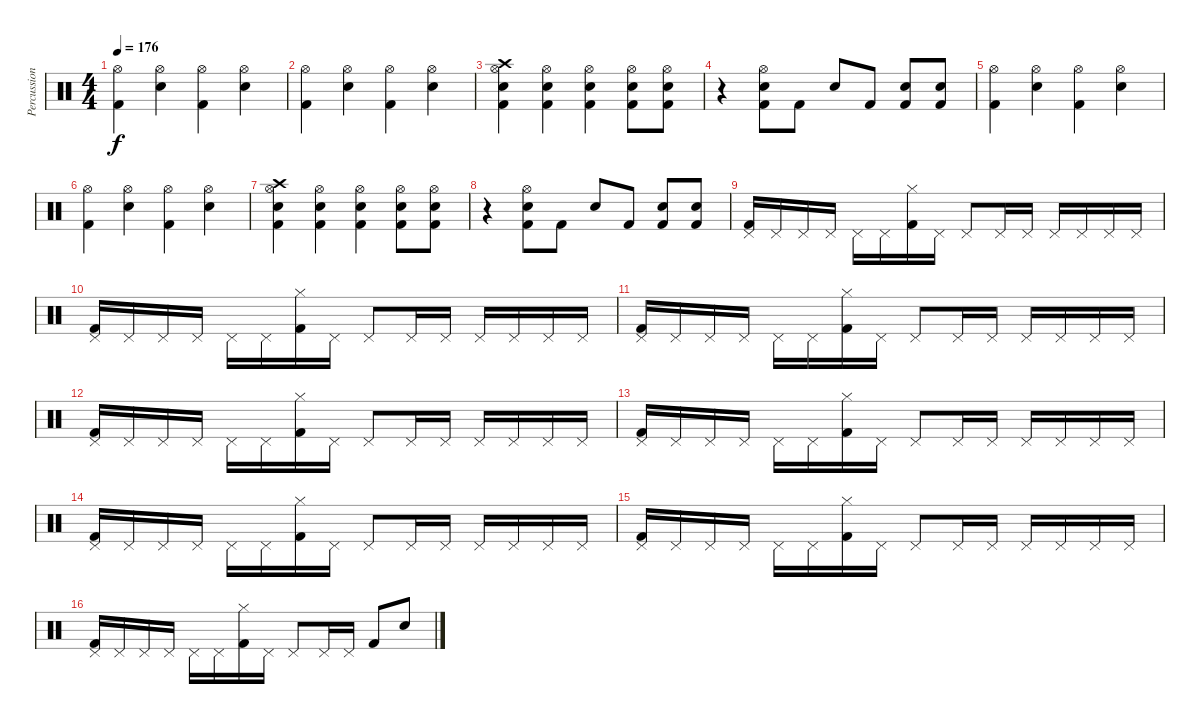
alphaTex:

\track ("Percussion" "Percussion") {instrument percussion}
\staff {score}
\articulation defaults
\ts (4 4)
\tempo 176
\clef neutral
\ks c
("Hi-Hat (open)" "Kick (hit) 2").4{dy f} ("Hi-Hat (open)" "Snare (hit) 2").4 ("Hi-Hat (open)" "Kick (hit) 2").4 ("Hi-Hat (open)" "Snare (hit) 2").4 |
("Hi-Hat (open)" "Kick (hit) 2").4 ("Hi-Hat (open)" "Snare (hit) 2").4 ("Hi-Hat (open)" "Kick (hit) 2").4 ("Hi-Hat (open)" "Snare (hit) 2").4 |
("Crash high (hit)" "Snare (hit) 2" "Hi-Hat (open)" "Kick (hit) 2").4 ("Snare (hit) 2" "Hi-Hat (open)" "Kick (hit) 2").4 ("Snare (hit) 2" "Hi-Hat (open)" "Kick (hit) 2").4 ("Snare (hit) 2" "Hi-Hat (open)" "Kick (hit) 2").8 ("Snare (hit) 2" "Hi-Hat (open)" "Kick (hit) 2").8 |
r.4 ("Snare (hit) 2" "Hi-Hat (open)" "Kick (hit) 2").8 "Kick (hit) 2".8 "Snare (hit) 2".8 "Kick (hit) 2".8 ("Snare (hit) 2" "Kick (hit) 2").8 ("Snare (hit) 2" "Kick (hit) 2").8 |
("Hi-Hat (open)" "Kick (hit) 2").4 ("Hi-Hat (open)" "Snare (hit) 2").4 ("Hi-Hat (open)" "Kick (hit) 2").4 ("Hi-Hat (open)" "Snare (hit) 2").4 |
("Hi-Hat (open)" "Kick (hit) 2").4 ("Hi-Hat (open)" "Snare (hit) 2").4 ("Hi-Hat (open)" "Kick (hit) 2").4 ("Hi-Hat (open)" "Snare (hit) 2").4 |
("Crash high (hit)" "Snare (hit) 2" "Hi-Hat (open)" "Kick (hit) 2").4 ("Snare (hit) 2" "Hi-Hat (open)" "Kick (hit) 2").4 ("Snare (hit) 2" "Hi-Hat (open)" "Kick (hit) 2").4 ("Snare (hit) 2" "Hi-Hat (open)" "Kick (hit) 2").8 ("Snare (hit) 2" "Hi-Hat (open)" "Kick (hit) 2").8 |
r.4 ("Snare (hit) 2" "Hi-Hat (open)" "Kick (hit) 2").8 "Kick (hit) 2".8 "Snare (hit) 2".8 "Kick (hit) 2".8 ("Snare (hit) 2" "Kick (hit) 2").8 ("Snare (hit) 2" "Kick (hit) 2").8 |
("Pedal Hi-Hat (hit)" "Kick (hit) 2").16 "Pedal Hi-Hat (hit)".16 "Pedal Hi-Hat (hit)".16 "Pedal Hi-Hat (hit)".16 "Pedal Hi-Hat (hit)".16 "Pedal Hi-Hat (hit)".16 ("Hi-Hat (closed)" "Kick (hit) 2").16 "Pedal Hi-Hat (hit)".16 "Pedal Hi-Hat (hit)".8 "Pedal Hi-Hat (hit)".16 "Pedal Hi-Hat (hit)".16 "Pedal Hi-Hat (hit)".16 "Pedal Hi-Hat (hit)".16 "Pedal Hi-Hat (hit)".16 "Pedal Hi-Hat (hit)".16 |
("Pedal Hi-Hat (hit)" "Kick (hit) 2").16 "Pedal Hi-Hat (hit)".16 "Pedal Hi-Hat (hit)".16 "Pedal Hi-Hat (hit)".16 "Pedal Hi-Hat (hit)".16 "Pedal Hi-Hat (hit)".16 ("Hi-Hat (closed)" "Kick (hit) 2").16 "Pedal Hi-Hat (hit)".16 "Pedal Hi-Hat (hit)".8 "Pedal Hi-Hat (hit)".16 "Pedal Hi-Hat (hit)".16 "Pedal Hi-Hat (hit)".16 "Pedal Hi-Hat (hit)".16 "Pedal Hi-Hat (hit)".16 "Pedal Hi-Hat (hit)".16 |
("Pedal Hi-Hat (hit)" "Kick (hit) 2").16 "Pedal Hi-Hat (hit)".16 "Pedal Hi-Hat (hit)".16 "Pedal Hi-Hat (hit)".16 "Pedal Hi-Hat (hit)".16 "Pedal Hi-Hat (hit)".16 ("Hi-Hat (closed)" "Kick (hit) 2").16 "Pedal Hi-Hat (hit)".16 "Pedal Hi-Hat (hit)".8 "Pedal Hi-Hat (hit)".16 "Pedal Hi-Hat (hit)".16 "Pedal Hi-Hat (hit)".16 "Pedal Hi-Hat (hit)".16 "Pedal Hi-Hat (hit)".16 "Pedal Hi-Hat (hit)".16 |
("Pedal Hi-Hat (hit)" "Kick (hit) 2").16 "Pedal Hi-Hat (hit)".16 "Pedal Hi-Hat (hit)".16 "Pedal Hi-Hat (hit)".16 "Pedal Hi-Hat (hit)".16 "Pedal Hi-Hat (hit)".16 ("Hi-Hat (closed)" "Kick (hit) 2").16 "Pedal Hi-Hat (hit)".16 "Pedal Hi-Hat (hit)".8 "Pedal Hi-Hat (hit)".16 "Pedal Hi-Hat (hit)".16 "Pedal Hi-Hat (hit)".16 "Pedal Hi-Hat (hit)".16 "Pedal Hi-Hat (hit)".16 "Pedal Hi-Hat (hit)".16 |
("Pedal Hi-Hat (hit)" "Kick (hit) 2").16 "Pedal Hi-Hat (hit)".16 "Pedal Hi-Hat (hit)".16 "Pedal Hi-Hat (hit)".16 "Pedal Hi-Hat (hit)".16 "Pedal Hi-Hat (hit)".16 ("Hi-Hat (closed)" "Kick (hit) 2").16 "Pedal Hi-Hat (hit)".16 "Pedal Hi-Hat (hit)".8 "Pedal Hi-Hat (hit)".16 "Pedal Hi-Hat (hit)".16 "Pedal Hi-Hat (hit)".16 "Pedal Hi-Hat (hit)".16 "Pedal Hi-Hat (hit)".16 "Pedal Hi-Hat (hit)".16 |
("Pedal Hi-Hat (hit)" "Kick (hit) 2").16 "Pedal Hi-Hat (hit)".16 "Pedal Hi-Hat (hit)".16 "Pedal Hi-Hat (hit)".16 "Pedal Hi-Hat (hit)".16 "Pedal Hi-Hat (hit)".16 ("Hi-Hat (closed)" "Kick (hit) 2").16 "Pedal Hi-Hat (hit)".16 "Pedal Hi-Hat (hit)".8 "Pedal Hi-Hat (hit)".16 "Pedal Hi-Hat (hit)".16 "Pedal Hi-Hat (hit)".16 "Pedal Hi-Hat (hit)".16 "Pedal Hi-Hat (hit)".16 "Pedal Hi-Hat (hit)".16 |
("Pedal Hi-Hat (hit)" "Kick (hit) 2").16 "Pedal Hi-Hat (hit)".16 "Pedal Hi-Hat (hit)".16 "Pedal Hi-Hat (hit)".16 "Pedal Hi-Hat (hit)".16 "Pedal Hi-Hat (hit)".16 ("Hi-Hat (closed)" "Kick (hit) 2").16 "Pedal Hi-Hat (hit)".16 "Pedal Hi-Hat (hit)".8 "Pedal Hi-Hat (hit)".16 "Pedal Hi-Hat (hit)".16 "Pedal Hi-Hat (hit)".16 "Pedal Hi-Hat (hit)".16 "Pedal Hi-Hat (hit)".16 "Pedal Hi-Hat (hit)".16 |
("Pedal Hi-Hat (hit)" "Kick (hit) 2").16 "Pedal Hi-Hat (hit)".16 "Pedal Hi-Hat (hit)".16 "Pedal Hi-Hat (hit)".16 "Pedal Hi-Hat (hit)".16 "Pedal Hi-Hat (hit)".16 ("Hi-Hat (closed)" "Kick (hit) 2").16 "Pedal Hi-Hat (hit)".16 "Pedal Hi-Hat (hit)".8 "Pedal Hi-Hat (hit)".16 "Pedal Hi-Hat (hit)".16 "Kick (hit) 2".8 "Snare (hit) 2".8
